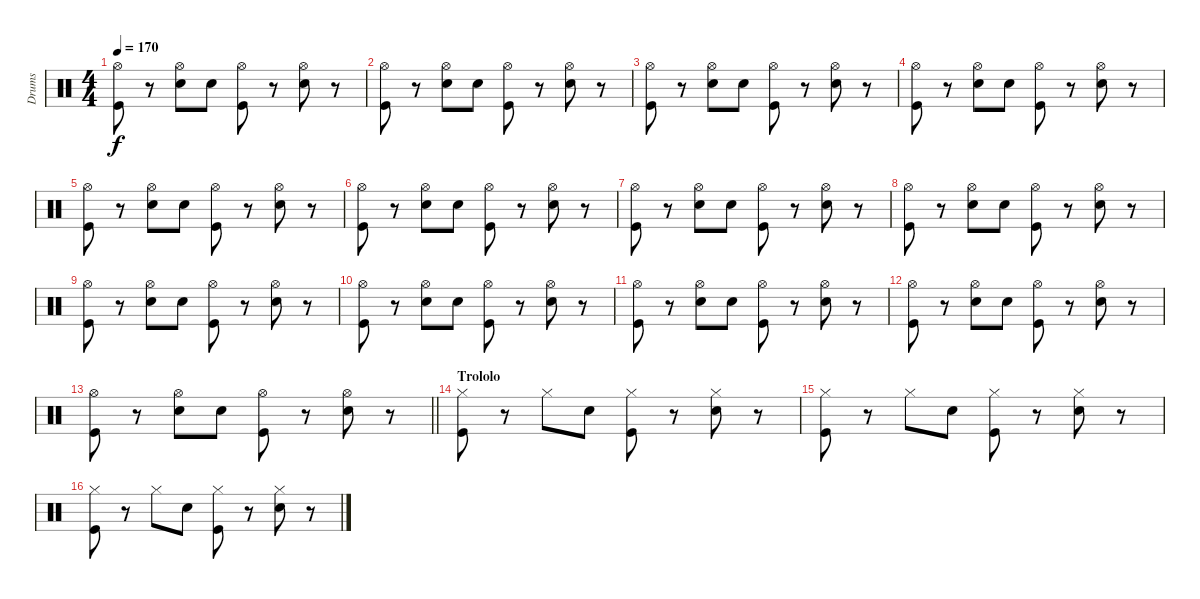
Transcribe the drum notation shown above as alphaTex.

\track ("Drums" "Drums") {instrument percussion}
\staff {score}
\articulation defaults
\ts (4 4)
\tempo 170
\clef neutral
\ks c
("Kick (hit)" "Hi-Hat (open)").8{dy f} r.8 ("Electric Snare (hit)" "Hi-Hat (open)").8 "Electric Snare (hit)".8 ("Kick (hit)" "Hi-Hat (open)").8 r.8 ("Electric Snare (hit)" "Hi-Hat (open)").8 r.8 |
("Kick (hit)" "Hi-Hat (open)").8 r.8 ("Electric Snare (hit)" "Hi-Hat (open)").8 "Electric Snare (hit)".8 ("Kick (hit)" "Hi-Hat (open)").8 r.8 ("Electric Snare (hit)" "Hi-Hat (open)").8 r.8 |
("Kick (hit)" "Hi-Hat (open)").8 r.8 ("Electric Snare (hit)" "Hi-Hat (open)").8 "Electric Snare (hit)".8 ("Kick (hit)" "Hi-Hat (open)").8 r.8 ("Electric Snare (hit)" "Hi-Hat (open)").8 r.8 |
("Kick (hit)" "Hi-Hat (open)").8 r.8 ("Electric Snare (hit)" "Hi-Hat (open)").8 "Electric Snare (hit)".8 ("Kick (hit)" "Hi-Hat (open)").8 r.8 ("Electric Snare (hit)" "Hi-Hat (open)").8 r.8 |
("Kick (hit)" "Hi-Hat (open)").8 r.8 ("Electric Snare (hit)" "Hi-Hat (open)").8 "Electric Snare (hit)".8 ("Kick (hit)" "Hi-Hat (open)").8 r.8 ("Electric Snare (hit)" "Hi-Hat (open)").8 r.8 |
("Kick (hit)" "Hi-Hat (open)").8 r.8 ("Electric Snare (hit)" "Hi-Hat (open)").8 "Electric Snare (hit)".8 ("Kick (hit)" "Hi-Hat (open)").8 r.8 ("Electric Snare (hit)" "Hi-Hat (open)").8 r.8 |
("Kick (hit)" "Hi-Hat (open)").8 r.8 ("Electric Snare (hit)" "Hi-Hat (open)").8 "Electric Snare (hit)".8 ("Kick (hit)" "Hi-Hat (open)").8 r.8 ("Electric Snare (hit)" "Hi-Hat (open)").8 r.8 |
("Kick (hit)" "Hi-Hat (open)").8 r.8 ("Electric Snare (hit)" "Hi-Hat (open)").8 "Electric Snare (hit)".8 ("Kick (hit)" "Hi-Hat (open)").8 r.8 ("Electric Snare (hit)" "Hi-Hat (open)").8 r.8 |
("Kick (hit)" "Hi-Hat (open)").8 r.8 ("Electric Snare (hit)" "Hi-Hat (open)").8 "Electric Snare (hit)".8 ("Kick (hit)" "Hi-Hat (open)").8 r.8 ("Electric Snare (hit)" "Hi-Hat (open)").8 r.8 |
("Kick (hit)" "Hi-Hat (open)").8 r.8 ("Electric Snare (hit)" "Hi-Hat (open)").8 "Electric Snare (hit)".8 ("Kick (hit)" "Hi-Hat (open)").8 r.8 ("Electric Snare (hit)" "Hi-Hat (open)").8 r.8 |
("Kick (hit)" "Hi-Hat (open)").8 r.8 ("Electric Snare (hit)" "Hi-Hat (open)").8 "Electric Snare (hit)".8 ("Kick (hit)" "Hi-Hat (open)").8 r.8 ("Electric Snare (hit)" "Hi-Hat (open)").8 r.8 |
("Kick (hit)" "Hi-Hat (open)").8 r.8 ("Electric Snare (hit)" "Hi-Hat (open)").8 "Electric Snare (hit)".8 ("Kick (hit)" "Hi-Hat (open)").8 r.8 ("Electric Snare (hit)" "Hi-Hat (open)").8 r.8 |
\barLineRight lightlight
("Kick (hit)" "Hi-Hat (open)").8 r.8 ("Electric Snare (hit)" "Hi-Hat (open)").8 "Electric Snare (hit)".8 ("Kick (hit)" "Hi-Hat (open)").8 r.8 ("Electric Snare (hit)" "Hi-Hat (open)").8 r.8 |
\section ("" "Trololo")
("Kick (hit)" "Hi-Hat (closed)").8 r.8 "Hi-Hat (closed)".8 "Electric Snare (hit)".8 ("Kick (hit)" "Hi-Hat (closed)").8 r.8 ("Electric Snare (hit)" "Hi-Hat (closed)").8 r.8 |
("Kick (hit)" "Hi-Hat (closed)").8 r.8 "Hi-Hat (closed)".8 "Electric Snare (hit)".8 ("Kick (hit)" "Hi-Hat (closed)").8 r.8 ("Electric Snare (hit)" "Hi-Hat (closed)").8 r.8 |
("Kick (hit)" "Hi-Hat (closed)").8 r.8 "Hi-Hat (closed)".8 "Electric Snare (hit)".8 ("Kick (hit)" "Hi-Hat (closed)").8 r.8 ("Electric Snare (hit)" "Hi-Hat (closed)").8 r.8
